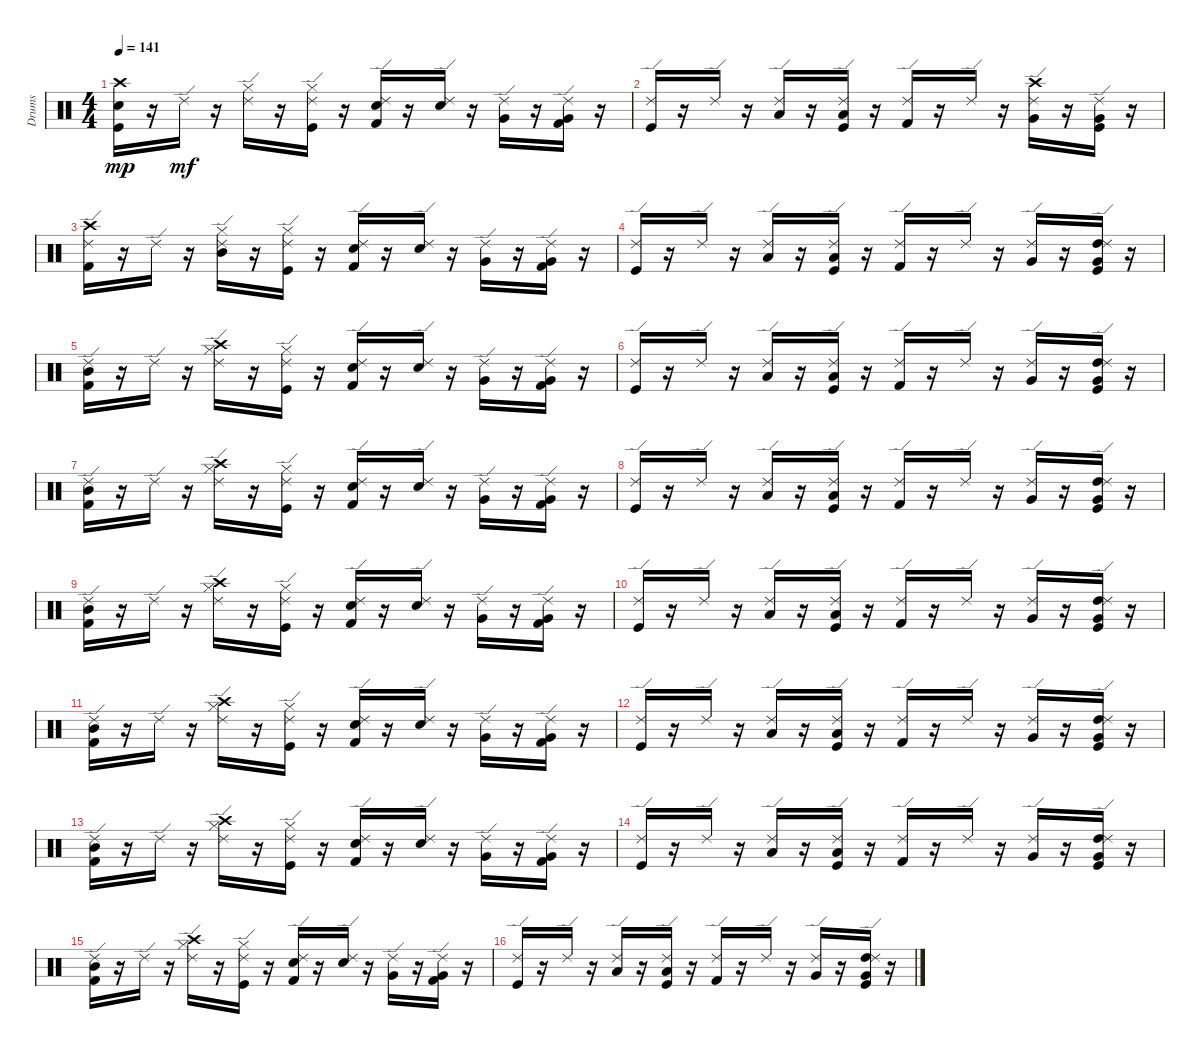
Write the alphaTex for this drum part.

\track ("Drums" "Drums") {instrument percussion}
\staff {score}
\articulation defaults
\ts (4 4)
\tempo 141
\clef neutral
\ks c
("Crash high (hit)" "Kick (hit)" "Electric Snare (hit)").16{dy mp} r.16 "Ride (edge) 2".16{dy mf} r.16 ("Hi-Hat (closed)" "Ride (edge) 2").16 r.16 ("Kick (hit)" "Hi-Hat (closed)" "Ride (edge) 2").16 r.16 ("Snare (hit) 2" "Kick (hit) 2" "Ride (edge) 2").16 r.16 ("Snare (hit) 2" "Ride (edge) 2").16 r.16 ("Very Low Tom (hit)" "Ride (edge) 2").16 r.16 ("Kick (hit) 2" "Very Low Tom (hit)" "Ride (edge) 2").16 r.16 |
("Kick (hit)" "Ride (edge) 2").16 r.16 "Ride (edge) 2".16 r.16 ("Low Floor Tom (hit)" "Ride (edge) 2").16 r.16 ("Kick (hit)" "Low Floor Tom (hit)" "Ride (edge) 2").16 r.16 ("Kick (hit) 2" "Ride (edge) 2").16 r.16 "Ride (edge) 2".16 r.16 ("Very Low Tom (hit)" "Crash high (hit)" "Ride (edge) 2").16 r.16 ("Kick (hit)" "Very Low Tom (hit)" "Ride (edge) 2").16 r.16 |
("Kick (hit) 2" "Ride (edge) 2" "Crash high (hit)").16 r.16 "Ride (edge) 2".16 r.16 ("Mid Tom (hit)" "Hi-Hat (closed)" "Ride (edge) 2").16 r.16 ("Kick (hit)" "Hi-Hat (closed)" "Ride (edge) 2").16 r.16 ("Snare (hit) 2" "Kick (hit) 2" "Ride (edge) 2").16 r.16 ("Snare (hit) 2" "Ride (edge) 2").16 r.16 ("Very Low Tom (hit)" "Ride (edge) 2").16 r.16 ("Kick (hit) 2" "Very Low Tom (hit)" "Ride (edge) 2").16 r.16 |
("Kick (hit)" "Ride (edge) 2").16 r.16 "Ride (edge) 2".16 r.16 ("Low Floor Tom (hit)" "Ride (edge) 2").16 r.16 ("Kick (hit)" "Low Floor Tom (hit)" "Ride (edge) 2").16 r.16 ("Kick (hit) 2" "Ride (edge) 2").16 r.16 "Ride (edge) 2".16 r.16 ("Very Low Tom (hit)" "Ride (edge) 2").16 r.16 ("High Tom (hit)" "Kick (hit)" "Very Low Tom (hit)" "Ride (edge) 2").16 r.16 |
("Mid Tom (hit)" "Kick (hit) 2" "Ride (edge) 2").16 r.16 "Ride (edge) 2".16 r.16 ("Hi-Hat (closed)" "Crash high (hit)" "Ride (edge) 2").16 r.16 ("Kick (hit)" "Hi-Hat (closed)" "Ride (edge) 2").16 r.16 ("Snare (hit) 2" "Kick (hit) 2" "Ride (edge) 2").16 r.16 ("Snare (hit) 2" "Ride (edge) 2").16 r.16 ("Very Low Tom (hit)" "Ride (edge) 2").16 r.16 ("Kick (hit) 2" "Very Low Tom (hit)" "Ride (edge) 2").16 r.16 |
("Kick (hit)" "Ride (edge) 2").16 r.16 "Ride (edge) 2".16 r.16 ("Low Floor Tom (hit)" "Ride (edge) 2").16 r.16 ("Kick (hit)" "Low Floor Tom (hit)" "Ride (edge) 2").16 r.16 ("Kick (hit) 2" "Ride (edge) 2").16 r.16 "Ride (edge) 2".16 r.16 ("Very Low Tom (hit)" "Ride (edge) 2").16 r.16 ("High Tom (hit)" "Kick (hit)" "Very Low Tom (hit)" "Ride (edge) 2").16 r.16 |
("Kick (hit) 2" "Ride (edge) 2" "Mid Tom (hit)").16 r.16 "Ride (edge) 2".16 r.16 ("Crash high (hit)" "Hi-Hat (closed)" "Ride (edge) 2").16 r.16 ("Kick (hit)" "Hi-Hat (closed)" "Ride (edge) 2").16 r.16 ("Snare (hit) 2" "Kick (hit) 2" "Ride (edge) 2").16 r.16 ("Snare (hit) 2" "Ride (edge) 2").16 r.16 ("Very Low Tom (hit)" "Ride (edge) 2").16 r.16 ("Kick (hit) 2" "Very Low Tom (hit)" "Ride (edge) 2").16 r.16 |
("Kick (hit)" "Ride (edge) 2").16 r.16 "Ride (edge) 2".16 r.16 ("Low Floor Tom (hit)" "Ride (edge) 2").16 r.16 ("Kick (hit)" "Low Floor Tom (hit)" "Ride (edge) 2").16 r.16 ("Kick (hit) 2" "Ride (edge) 2").16 r.16 "Ride (edge) 2".16 r.16 ("Very Low Tom (hit)" "Ride (edge) 2").16 r.16 ("High Tom (hit)" "Kick (hit)" "Very Low Tom (hit)" "Ride (edge) 2").16 r.16 |
("Kick (hit) 2" "Ride (edge) 2" "Mid Tom (hit)").16 r.16 "Ride (edge) 2".16 r.16 ("Crash high (hit)" "Hi-Hat (closed)" "Ride (edge) 2").16 r.16 ("Kick (hit)" "Hi-Hat (closed)" "Ride (edge) 2").16 r.16 ("Snare (hit) 2" "Kick (hit) 2" "Ride (edge) 2").16 r.16 ("Snare (hit) 2" "Ride (edge) 2").16 r.16 ("Very Low Tom (hit)" "Ride (edge) 2").16 r.16 ("Kick (hit) 2" "Very Low Tom (hit)" "Ride (edge) 2").16 r.16 |
("Kick (hit)" "Ride (edge) 2").16 r.16 "Ride (edge) 2".16 r.16 ("Low Floor Tom (hit)" "Ride (edge) 2").16 r.16 ("Kick (hit)" "Low Floor Tom (hit)" "Ride (edge) 2").16 r.16 ("Kick (hit) 2" "Ride (edge) 2").16 r.16 "Ride (edge) 2".16 r.16 ("Very Low Tom (hit)" "Ride (edge) 2").16 r.16 ("High Tom (hit)" "Kick (hit)" "Very Low Tom (hit)" "Ride (edge) 2").16 r.16 |
("Kick (hit) 2" "Ride (edge) 2" "Mid Tom (hit)").16 r.16 "Ride (edge) 2".16 r.16 ("Crash high (hit)" "Hi-Hat (closed)" "Ride (edge) 2").16 r.16 ("Kick (hit)" "Hi-Hat (closed)" "Ride (edge) 2").16 r.16 ("Snare (hit) 2" "Kick (hit) 2" "Ride (edge) 2").16 r.16 ("Snare (hit) 2" "Ride (edge) 2").16 r.16 ("Very Low Tom (hit)" "Ride (edge) 2").16 r.16 ("Kick (hit) 2" "Very Low Tom (hit)" "Ride (edge) 2").16 r.16 |
("Kick (hit)" "Ride (edge) 2").16 r.16 "Ride (edge) 2".16 r.16 ("Low Floor Tom (hit)" "Ride (edge) 2").16 r.16 ("Kick (hit)" "Low Floor Tom (hit)" "Ride (edge) 2").16 r.16 ("Kick (hit) 2" "Ride (edge) 2").16 r.16 "Ride (edge) 2".16 r.16 ("Very Low Tom (hit)" "Ride (edge) 2").16 r.16 ("High Tom (hit)" "Kick (hit)" "Very Low Tom (hit)" "Ride (edge) 2").16 r.16 |
("Kick (hit) 2" "Ride (edge) 2" "Mid Tom (hit)").16 r.16 "Ride (edge) 2".16 r.16 ("Crash high (hit)" "Hi-Hat (closed)" "Ride (edge) 2").16 r.16 ("Kick (hit)" "Hi-Hat (closed)" "Ride (edge) 2").16 r.16 ("Snare (hit) 2" "Kick (hit) 2" "Ride (edge) 2").16 r.16 ("Snare (hit) 2" "Ride (edge) 2").16 r.16 ("Very Low Tom (hit)" "Ride (edge) 2").16 r.16 ("Kick (hit) 2" "Very Low Tom (hit)" "Ride (edge) 2").16 r.16 |
("Kick (hit)" "Ride (edge) 2").16 r.16 "Ride (edge) 2".16 r.16 ("Low Floor Tom (hit)" "Ride (edge) 2").16 r.16 ("Kick (hit)" "Low Floor Tom (hit)" "Ride (edge) 2").16 r.16 ("Kick (hit) 2" "Ride (edge) 2").16 r.16 "Ride (edge) 2".16 r.16 ("Very Low Tom (hit)" "Ride (edge) 2").16 r.16 ("High Tom (hit)" "Kick (hit)" "Very Low Tom (hit)" "Ride (edge) 2").16 r.16 |
("Kick (hit) 2" "Ride (edge) 2" "Mid Tom (hit)").16 r.16 "Ride (edge) 2".16 r.16 ("Crash high (hit)" "Hi-Hat (closed)" "Ride (edge) 2").16 r.16 ("Kick (hit)" "Hi-Hat (closed)" "Ride (edge) 2").16 r.16 ("Snare (hit) 2" "Kick (hit) 2" "Ride (edge) 2").16 r.16 ("Snare (hit) 2" "Ride (edge) 2").16 r.16 ("Very Low Tom (hit)" "Ride (edge) 2").16 r.16 ("Kick (hit) 2" "Very Low Tom (hit)" "Ride (edge) 2").16 r.16 |
("Kick (hit)" "Ride (edge) 2").16 r.16 "Ride (edge) 2".16 r.16 ("Low Floor Tom (hit)" "Ride (edge) 2").16 r.16 ("Kick (hit)" "Low Floor Tom (hit)" "Ride (edge) 2").16 r.16 ("Kick (hit) 2" "Ride (edge) 2").16 r.16 "Ride (edge) 2".16 r.16 ("Very Low Tom (hit)" "Ride (edge) 2").16 r.16 ("High Tom (hit)" "Kick (hit)" "Very Low Tom (hit)" "Ride (edge) 2").16 r.16
